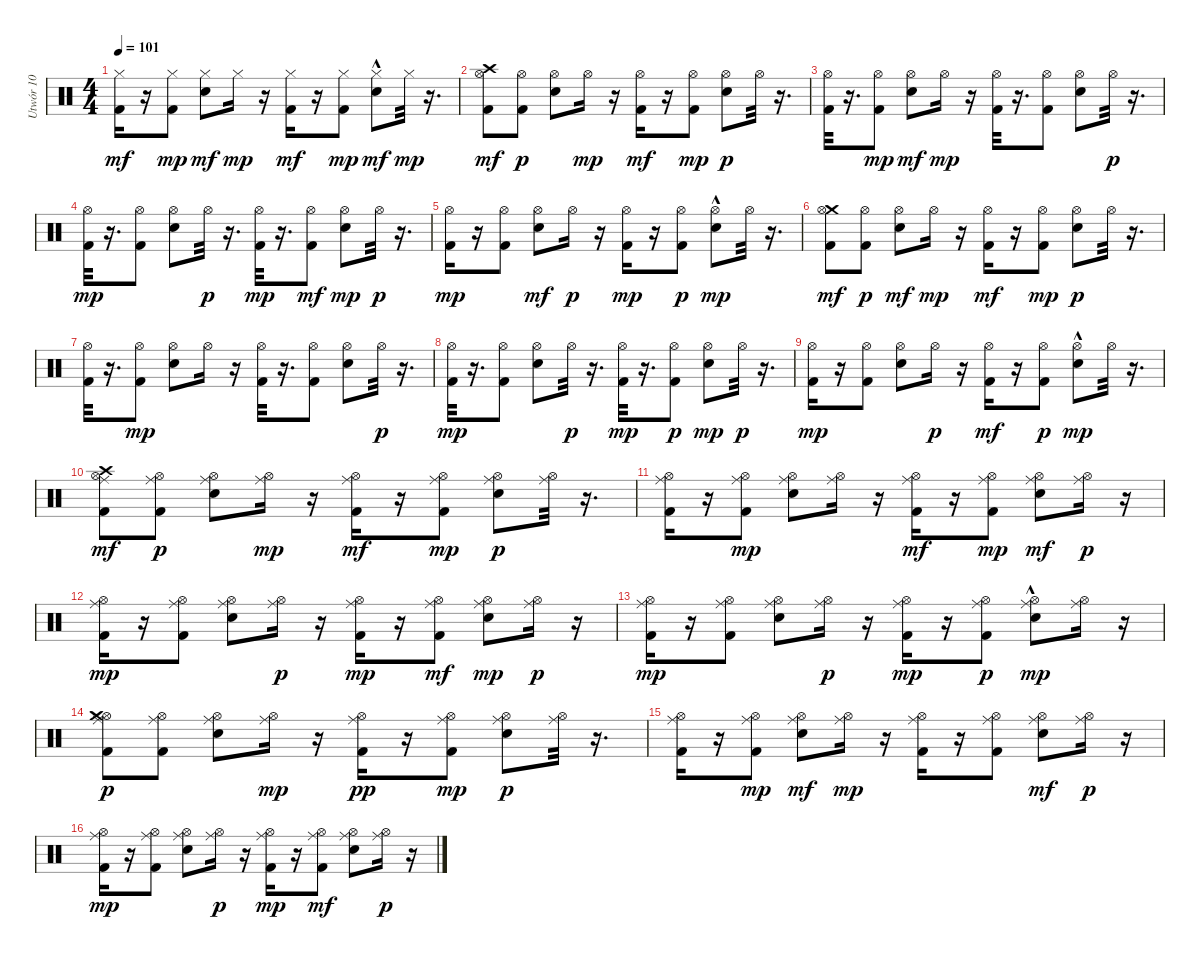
\track ("Utwór 10" "Utwór 10") {instrument percussion}
\staff {score}
\articulation defaults
\ts (4 4)
\tempo 101
\clef neutral
\ks c
("Hi-Hat (closed)" "Kick (hit) 2").16{dy mf} r.16 ("Hi-Hat (closed)" "Kick (hit) 2").8{dy mp} ("Snare (hit) 2" "Hi-Hat (closed)").8{dy mf} "Hi-Hat (closed)".16{dy mp} r.16 ("Kick (hit) 2" "Hi-Hat (closed)").16{dy mf} r.16 ("Hi-Hat (closed)" "Kick (hit) 2").8{dy mp} ("Hi-Hat (closed)" "Snare (hit) 2"{hac}).8{dy mf} "Hi-Hat (closed)".32{dy mp} r.16{d} |
("Hi-Hat (open)" "Kick (hit) 2" "Crash high (hit)").8{dy mf} ("Kick (hit) 2" "Hi-Hat (open)").8{dy p} ("Snare (hit) 2" "Hi-Hat (open)").8 "Hi-Hat (open)".16{dy mp} r.16 ("Hi-Hat (open)" "Kick (hit) 2").16{dy mf} r.16 ("Hi-Hat (open)" "Kick (hit) 2").8{dy mp} ("Hi-Hat (open)" "Snare (hit) 2").8{dy p} "Hi-Hat (open)".32 r.16{d} |
("Hi-Hat (open)" "Kick (hit) 2").32 r.16{d} ("Hi-Hat (open)" "Kick (hit) 2").8{dy mp} ("Hi-Hat (open)" "Snare (hit) 2").8{dy mf} "Hi-Hat (open)".16{dy mp} r.16 ("Kick (hit) 2" "Hi-Hat (open)").32 r.16{d} ("Kick (hit) 2" "Hi-Hat (open)").8 ("Snare (hit) 2" "Hi-Hat (open)").8 "Hi-Hat (open)".32{dy p} r.16{d} |
("Kick (hit) 2" "Hi-Hat (open)").32{dy mp} r.16{d} ("Hi-Hat (open)" "Kick (hit) 2").8 ("Hi-Hat (open)" "Snare (hit) 2").8 "Hi-Hat (open)".32{dy p} r.16{d} ("Hi-Hat (open)" "Kick (hit) 2").32{dy mp} r.16{d} ("Hi-Hat (open)" "Kick (hit) 2").8{dy mf} ("Snare (hit) 2" "Hi-Hat (open)").8{dy mp} "Hi-Hat (open)".32{dy p} r.16{d} |
("Hi-Hat (open)" "Kick (hit) 2").16{dy mp} r.16 ("Hi-Hat (open)" "Kick (hit) 2").8 ("Hi-Hat (open)" "Snare (hit) 2").8{dy mf} "Hi-Hat (open)".16{dy p} r.16 ("Kick (hit) 2" "Hi-Hat (open)").16{dy mp} r.16 ("Kick (hit) 2" "Hi-Hat (open)").8{dy p} ("Hi-Hat (open)" "Snare (hit) 2"{hac}).8{dy mp} "Hi-Hat (open)".32 r.16{d} |
("Crash medium (hit)" "Hi-Hat (open)" "Kick (hit) 2").8{dy mf} ("Hi-Hat (open)" "Kick (hit) 2").8{dy p} ("Hi-Hat (open)" "Snare (hit) 2").8{dy mf} "Hi-Hat (open)".16{dy mp} r.16 ("Hi-Hat (open)" "Kick (hit) 2").16{dy mf} r.16 ("Kick (hit) 2" "Hi-Hat (open)").8{dy mp} ("Hi-Hat (open)" "Snare (hit) 2").8{dy p} "Hi-Hat (open)".32 r.16{d} |
("Hi-Hat (open)" "Kick (hit) 2").32 r.16{d} ("Hi-Hat (open)" "Kick (hit) 2").8{dy mp} ("Snare (hit) 2" "Hi-Hat (open)").8 "Hi-Hat (open)".16 r.16 ("Kick (hit) 2" "Hi-Hat (open)").32 r.16{d} ("Kick (hit) 2" "Hi-Hat (open)").8 ("Snare (hit) 2" "Hi-Hat (open)").8 "Hi-Hat (open)".32{dy p} r.16{d} |
("Kick (hit) 2" "Hi-Hat (open)").32{dy mp} r.16{d} ("Hi-Hat (open)" "Kick (hit) 2").8 ("Hi-Hat (open)" "Snare (hit) 2").8 "Hi-Hat (open)".32{dy p} r.16{d} ("Kick (hit) 2" "Hi-Hat (open)").32{dy mp} r.16{d} ("Kick (hit) 2" "Hi-Hat (open)").8{dy p} ("Snare (hit) 2" "Hi-Hat (open)").8{dy mp} "Hi-Hat (open)".32{dy p} r.16{d} |
("Kick (hit) 2" "Hi-Hat (open)").16{dy mp} r.16 ("Kick (hit) 2" "Hi-Hat (open)").8 ("Snare (hit) 2" "Hi-Hat (open)").8 "Hi-Hat (open)".16{dy p} r.16 ("Hi-Hat (open)" "Kick (hit) 2").16{dy mf} r.16 ("Kick (hit) 2" "Hi-Hat (open)").8{dy p} ("Hi-Hat (open)" "Snare (hit) 2"{hac}).8{dy mp} "Hi-Hat (open)".32 r.16{d} |
("Crash high (hit)" "Ride (middle)" "Hi-Hat (open)" "Kick (hit) 2").8{dy mf} ("Hi-Hat (open)" "Kick (hit) 2" "Ride (middle)").8{dy p} ("Snare (hit) 2" "Ride (middle)" "Hi-Hat (open)").8 ("Ride (middle)" "Hi-Hat (open)").16{dy mp} r.16 ("Hi-Hat (open)" "Kick (hit) 2" "Ride (middle)").16{dy mf} r.16 ("Ride (middle)" "Hi-Hat (open)" "Kick (hit) 2").8{dy mp} ("Hi-Hat (open)" "Snare (hit) 2" "Ride (middle)").8{dy p} ("Ride (middle)" "Hi-Hat (open)").32 r.16{d} |
("Hi-Hat (open)" "Ride (middle)" "Kick (hit) 2").16 r.16 ("Hi-Hat (open)" "Ride (middle)" "Kick (hit) 2").8{dy mp} ("Snare (hit) 2" "Hi-Hat (open)" "Ride (middle)").8 ("Hi-Hat (open)" "Ride (middle)").16 r.16 ("Hi-Hat (open)" "Ride (middle)" "Kick (hit) 2").16{dy mf} r.16 ("Ride (middle)" "Hi-Hat (open)" "Kick (hit) 2").8{dy mp} ("Ride (middle)" "Hi-Hat (open)" "Snare (hit) 2").8{dy mf} ("Hi-Hat (open)" "Ride (middle)").16{dy p} r.16 |
("Kick (hit) 2" "Ride (middle)" "Hi-Hat (open)").16{dy mp} r.16 ("Ride (middle)" "Kick (hit) 2" "Hi-Hat (open)").8 ("Hi-Hat (open)" "Snare (hit) 2" "Ride (middle)").8 ("Hi-Hat (open)" "Ride (middle)").16{dy p} r.16 ("Kick (hit) 2" "Hi-Hat (open)" "Ride (middle)").16{dy mp} r.16 ("Hi-Hat (open)" "Ride (middle)" "Kick (hit) 2").8{dy mf} ("Snare (hit) 2" "Hi-Hat (open)" "Ride (middle)").8{dy mp} ("Hi-Hat (open)" "Ride (middle)").16{dy p} r.16 |
("Hi-Hat (open)" "Kick (hit) 2" "Ride (middle)").16{dy mp} r.16 ("Ride (middle)" "Hi-Hat (open)" "Kick (hit) 2").8 ("Snare (hit) 2" "Hi-Hat (open)" "Ride (middle)").8 ("Hi-Hat (open)" "Ride (middle)").16{dy p} r.16 ("Kick (hit) 2" "Hi-Hat (open)" "Ride (middle)").16{dy mp} r.16 ("Ride (middle)" "Kick (hit) 2" "Hi-Hat (open)").8{dy p} ("Hi-Hat (open)" "Snare (hit) 2"{hac} "Ride (middle)").8{dy mp} ("Ride (middle)" "Hi-Hat (open)").16 r.16 |
("Ride (middle)" "Kick (hit) 2" "Hi-Hat (open)" "Crash medium (hit)").8{dy p} ("Kick (hit) 2" "Ride (middle)" "Hi-Hat (open)").8 ("Snare (hit) 2" "Ride (middle)" "Hi-Hat (open)").8 ("Hi-Hat (open)" "Ride (middle)").16{dy mp} r.16 ("Ride (middle)" "Kick (hit) 2" "Hi-Hat (open)").16{dy pp} r.16 ("Ride (middle)" "Kick (hit) 2" "Hi-Hat (open)").8{dy mp} ("Hi-Hat (open)" "Snare (hit) 2" "Ride (middle)").8{dy p} ("Ride (middle)" "Hi-Hat (open)").32 r.16{d} |
("Hi-Hat (open)" "Ride (middle)" "Kick (hit) 2").16 r.16 ("Ride (middle)" "Kick (hit) 2" "Hi-Hat (open)").8{dy mp} ("Hi-Hat (open)" "Snare (hit) 2" "Ride (middle)").8{dy mf} ("Ride (middle)" "Hi-Hat (open)").16{dy mp} r.16 ("Kick (hit) 2" "Hi-Hat (open)" "Ride (middle)").16 r.16 ("Kick (hit) 2" "Ride (middle)" "Hi-Hat (open)").8 ("Hi-Hat (open)" "Ride (middle)" "Snare (hit) 2").8{dy mf} ("Ride (middle)" "Hi-Hat (open)").16{dy p} r.16 |
("Hi-Hat (open)" "Ride (middle)" "Kick (hit) 2").16{dy mp} r.16 ("Kick (hit) 2" "Ride (middle)" "Hi-Hat (open)").8 ("Ride (middle)" "Hi-Hat (open)" "Snare (hit) 2").8 ("Ride (middle)" "Hi-Hat (open)").16{dy p} r.16 ("Ride (middle)" "Hi-Hat (open)" "Kick (hit) 2").16{dy mp} r.16 ("Hi-Hat (open)" "Kick (hit) 2" "Ride (middle)").8{dy mf} ("Hi-Hat (open)" "Ride (middle)" "Snare (hit) 2").8 ("Hi-Hat (open)" "Ride (middle)").16{dy p} r.16
